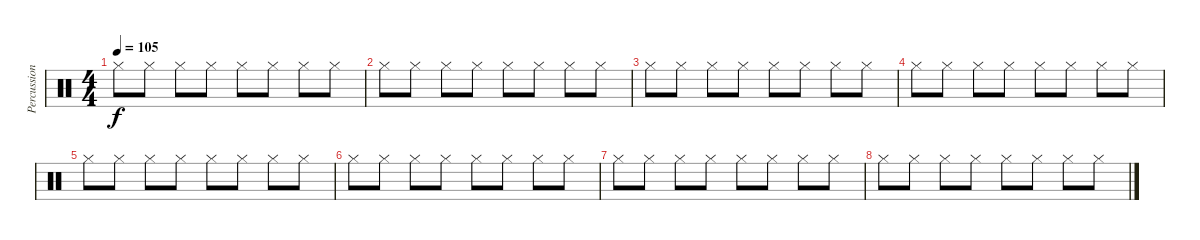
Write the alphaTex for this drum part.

\track ("Percussion" "Percussion") {instrument percussion}
\staff {score}
\articulation defaults
\ts (4 4)
\tempo 105
\clef neutral
\ks c "Hi-Hat (closed)".8{dy f} "Hi-Hat (closed)".8 "Hi-Hat (closed)".8 "Hi-Hat (closed)".8 "Hi-Hat (closed)".8 "Hi-Hat (closed)".8 "Hi-Hat (closed)".8 "Hi-Hat (closed)".8
|
"Hi-Hat (closed)".8 "Hi-Hat (closed)".8 "Hi-Hat (closed)".8 "Hi-Hat (closed)".8 "Hi-Hat (closed)".8 "Hi-Hat (closed)".8 "Hi-Hat (closed)".8 "Hi-Hat (closed)".8 |
"Hi-Hat (closed)".8 "Hi-Hat (closed)".8 "Hi-Hat (closed)".8 "Hi-Hat (closed)".8 "Hi-Hat (closed)".8 "Hi-Hat (closed)".8 "Hi-Hat (closed)".8 "Hi-Hat (closed)".8 |
"Hi-Hat (closed)".8 "Hi-Hat (closed)".8 "Hi-Hat (closed)".8 "Hi-Hat (closed)".8 "Hi-Hat (closed)".8 "Hi-Hat (closed)".8 "Hi-Hat (closed)".8 "Hi-Hat (closed)".8 |
"Hi-Hat (closed)".8 "Hi-Hat (closed)".8 "Hi-Hat (closed)".8 "Hi-Hat (closed)".8 "Hi-Hat (closed)".8 "Hi-Hat (closed)".8 "Hi-Hat (closed)".8 "Hi-Hat (closed)".8 |
"Hi-Hat (closed)".8 "Hi-Hat (closed)".8 "Hi-Hat (closed)".8 "Hi-Hat (closed)".8 "Hi-Hat (closed)".8 "Hi-Hat (closed)".8 "Hi-Hat (closed)".8 "Hi-Hat (closed)".8 |
"Hi-Hat (closed)".8 "Hi-Hat (closed)".8 "Hi-Hat (closed)".8 "Hi-Hat (closed)".8 "Hi-Hat (closed)".8 "Hi-Hat (closed)".8 "Hi-Hat (closed)".8 "Hi-Hat (closed)".8 |
"Hi-Hat (closed)".8 "Hi-Hat (closed)".8 "Hi-Hat (closed)".8 "Hi-Hat (closed)".8 "Hi-Hat (closed)".8 "Hi-Hat (closed)".8 "Hi-Hat (closed)".8 "Hi-Hat (closed)".8
